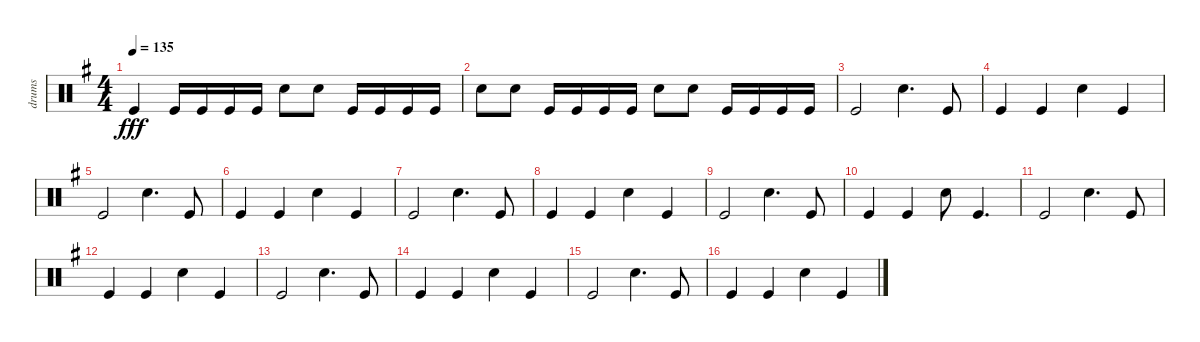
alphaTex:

\track ("drums" "drums") {instrument percussion}
\staff {score}
\articulation defaults
\ts (4 4)
\tempo 135
\clef neutral
\ks eminor "Kick (hit)".4{dy fff} "Kick (hit)".16 "Kick (hit)".16 "Kick (hit)".16 "Kick (hit)".16 "Electric Snare (hit)".8 "Electric Snare (hit)".8 "Kick (hit)".16 "Kick (hit)".16 "Kick (hit)".16 "Kick (hit)".16
|
"Electric Snare (hit)".8 "Electric Snare (hit)".8 "Kick (hit)".16 "Kick (hit)".16 "Kick (hit)".16 "Kick (hit)".16 "Electric Snare (hit)".8 "Electric Snare (hit)".8 "Kick (hit)".16 "Kick (hit)".16 "Kick (hit)".16 "Kick (hit)".16 |
"Kick (hit)".2 "Electric Snare (hit)".4{d} "Kick (hit)".8 |
"Kick (hit)".4 "Kick (hit)".4 "Electric Snare (hit)".4 "Kick (hit)".4 |
"Kick (hit)".2 "Electric Snare (hit)".4{d} "Kick (hit)".8 |
"Kick (hit)".4 "Kick (hit)".4 "Electric Snare (hit)".4 "Kick (hit)".4 |
"Kick (hit)".2 "Electric Snare (hit)".4{d} "Kick (hit)".8 |
"Kick (hit)".4 "Kick (hit)".4 "Electric Snare (hit)".4 "Kick (hit)".4 |
"Kick (hit)".2 "Electric Snare (hit)".4{d} "Kick (hit)".8 |
"Kick (hit)".4 "Kick (hit)".4 "Electric Snare (hit)".8 "Kick (hit)".4{d} |
"Kick (hit)".2 "Electric Snare (hit)".4{d} "Kick (hit)".8 |
"Kick (hit)".4 "Kick (hit)".4 "Electric Snare (hit)".4 "Kick (hit)".4 |
"Kick (hit)".2 "Electric Snare (hit)".4{d} "Kick (hit)".8 |
"Kick (hit)".4 "Kick (hit)".4 "Electric Snare (hit)".4 "Kick (hit)".4 |
"Kick (hit)".2 "Electric Snare (hit)".4{d} "Kick (hit)".8 |
"Kick (hit)".4 "Kick (hit)".4 "Electric Snare (hit)".4 "Kick (hit)".4
